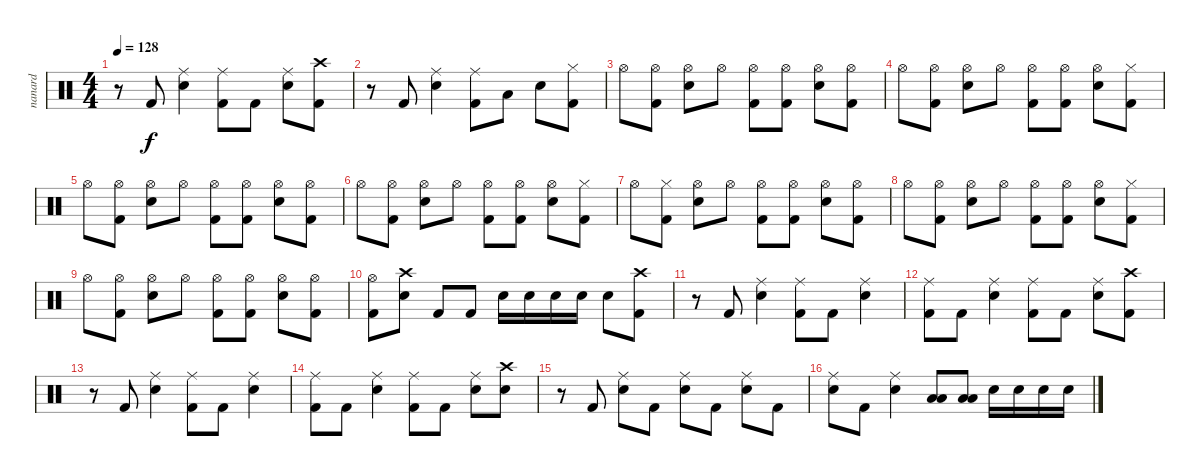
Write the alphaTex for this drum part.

\track ("nanard" "nanard") {instrument percussion}
\staff {score}
\articulation defaults
\ts (4 4)
\tempo 128
\clef neutral
\ks c
r.8{dy f} "Kick (hit) 2".8 ("Ride (middle)" "Electric Snare (hit)").4 ("Ride (middle)" "Kick (hit) 2").8 "Kick (hit) 2".8 ("Ride (middle)" "Electric Snare (hit)").8 ("Crash high (hit)" "Kick (hit) 2").8 |
r.8 "Kick (hit) 2".8 ("Ride (middle)" "Electric Snare (hit)").4 ("Ride (middle)" "Kick (hit) 2").8 "Low Tom (hit)".8 "Electric Snare (hit)".8 ("Hi-Hat (closed)" "Kick (hit) 2").8 |
"Hi-Hat (open)".8 ("Hi-Hat (open)" "Kick (hit) 2").8 ("Hi-Hat (open)" "Electric Snare (hit)").8 "Hi-Hat (open)".8 ("Hi-Hat (open)" "Kick (hit) 2").8 ("Hi-Hat (open)" "Kick (hit) 2").8 ("Hi-Hat (open)" "Electric Snare (hit)").8 ("Hi-Hat (open)" "Kick (hit) 2").8 |
"Hi-Hat (open)".8 ("Hi-Hat (open)" "Kick (hit) 2").8 ("Hi-Hat (open)" "Electric Snare (hit)").8 "Hi-Hat (open)".8 ("Hi-Hat (open)" "Kick (hit) 2").8 ("Hi-Hat (open)" "Kick (hit) 2").8 ("Hi-Hat (open)" "Electric Snare (hit)").8 ("Hi-Hat (closed)" "Kick (hit) 2").8 |
"Hi-Hat (open)".8 ("Hi-Hat (open)" "Kick (hit) 2").8 ("Hi-Hat (open)" "Electric Snare (hit)").8 "Hi-Hat (open)".8 ("Hi-Hat (open)" "Kick (hit) 2").8 ("Hi-Hat (open)" "Kick (hit) 2").8 ("Hi-Hat (open)" "Electric Snare (hit)").8 ("Hi-Hat (open)" "Kick (hit) 2").8 |
"Hi-Hat (open)".8 ("Hi-Hat (open)" "Kick (hit) 2").8 ("Hi-Hat (open)" "Electric Snare (hit)").8 "Hi-Hat (open)".8 ("Hi-Hat (open)" "Kick (hit) 2").8 ("Hi-Hat (open)" "Kick (hit) 2").8 ("Hi-Hat (open)" "Electric Snare (hit)").8 ("Hi-Hat (closed)" "Kick (hit) 2").8 |
"Hi-Hat (open)".8 ("Hi-Hat (closed)" "Kick (hit) 2").8 ("Hi-Hat (open)" "Electric Snare (hit)").8 "Hi-Hat (open)".8 ("Hi-Hat (open)" "Kick (hit) 2").8 ("Hi-Hat (open)" "Kick (hit) 2").8 ("Hi-Hat (open)" "Electric Snare (hit)").8 ("Hi-Hat (open)" "Kick (hit) 2").8 |
"Hi-Hat (open)".8 ("Hi-Hat (open)" "Kick (hit) 2").8 ("Hi-Hat (open)" "Electric Snare (hit)").8 "Hi-Hat (open)".8 ("Hi-Hat (open)" "Kick (hit) 2").8 ("Hi-Hat (open)" "Kick (hit) 2").8 ("Hi-Hat (open)" "Electric Snare (hit)").8 ("Hi-Hat (closed)" "Kick (hit) 2").8 |
"Hi-Hat (open)".8 ("Hi-Hat (open)" "Kick (hit) 2").8 ("Hi-Hat (open)" "Electric Snare (hit)").8 "Hi-Hat (open)".8 ("Hi-Hat (open)" "Kick (hit) 2").8 ("Hi-Hat (open)" "Kick (hit) 2").8 ("Hi-Hat (open)" "Electric Snare (hit)").8 ("Hi-Hat (open)" "Kick (hit) 2").8 |
("Hi-Hat (open)" "Kick (hit) 2").8 ("Crash high (hit)" "Electric Snare (hit)").8 "Kick (hit) 2".8 "Kick (hit) 2".8 "Electric Snare (hit)".16 "Electric Snare (hit)".16 "Electric Snare (hit)".16 "Electric Snare (hit)".16 "Electric Snare (hit)".8 ("Crash high (hit)" "Kick (hit) 2").8 |
r.8 "Kick (hit) 2".8 ("Ride (middle)" "Electric Snare (hit)").4 ("Ride (middle)" "Kick (hit) 2").8 "Kick (hit) 2".8 ("Ride (middle)" "Electric Snare (hit)").4 |
("Ride (middle)" "Kick (hit) 2").8 "Kick (hit) 2".8 ("Ride (middle)" "Electric Snare (hit)").4 ("Ride (middle)" "Kick (hit) 2").8 "Kick (hit) 2".8 ("Ride (middle)" "Electric Snare (hit)").8 ("Crash high (hit)" "Kick (hit) 2").8 |
r.8 "Kick (hit) 2".8 ("Ride (middle)" "Electric Snare (hit)").4 ("Ride (middle)" "Kick (hit) 2").8 "Kick (hit) 2".8 ("Ride (middle)" "Electric Snare (hit)").4 |
("Ride (middle)" "Kick (hit) 2").8 "Kick (hit) 2".8 ("Ride (middle)" "Electric Snare (hit)").4 ("Ride (middle)" "Kick (hit) 2").8 "Kick (hit) 2".8 ("Ride (middle)" "Electric Snare (hit)").8 ("Crash high (hit)" "Electric Snare (hit)").8 |
r.8 "Kick (hit) 2".8 ("Ride (middle)" "Electric Snare (hit)").8 "Kick (hit) 2".8 ("Ride (middle)" "Electric Snare (hit)").8 "Kick (hit) 2".8 ("Ride (middle)" "Electric Snare (hit)").8 "Kick (hit) 2".8 |
("Ride (middle)" "Electric Snare (hit)").8 "Kick (hit) 2".8 ("Ride (middle)" "Electric Snare (hit)").4 ("Low Tom (hit)" "Low Floor Tom (hit)").8 ("Low Tom (hit)" "Low Floor Tom (hit)").8 "Electric Snare (hit)".16 "Electric Snare (hit)".16 "Electric Snare (hit)".16 "Electric Snare (hit)".16
